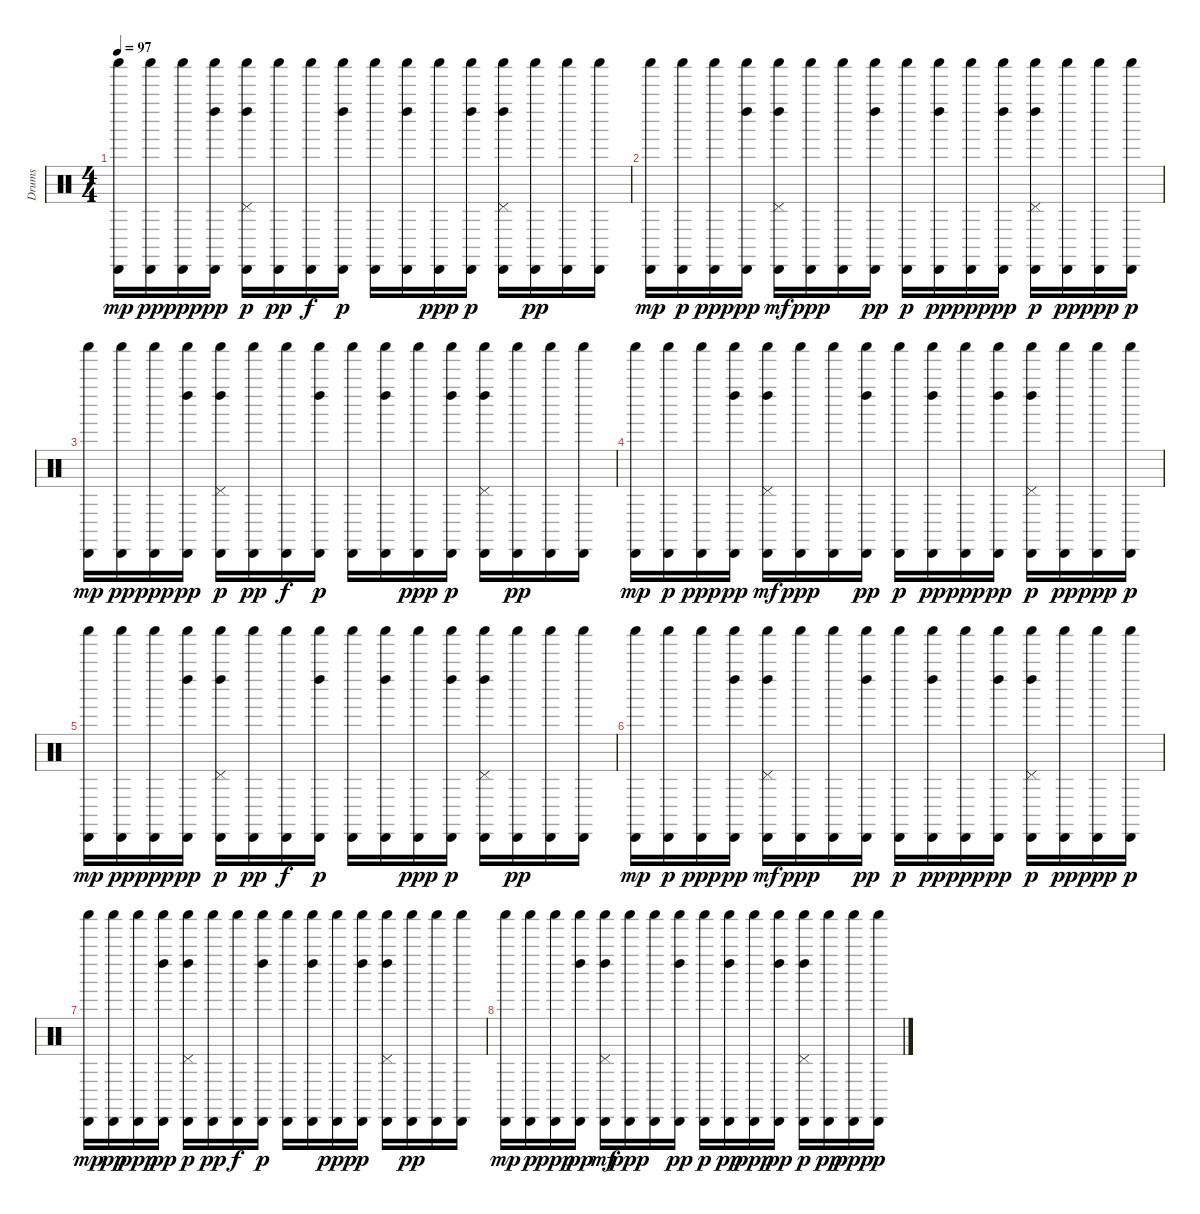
\track ("Drums" "Drums") {instrument percussion}
\staff {score}
\articulation defaults
\ts (4 4)
\tempo 97
\clef neutral
\ks c
("Shaker (hit)" "Cabasa (hit)").16{dy mp} ("Cabasa (hit)" "Shaker (hit)").16{dy pp} ("Shaker (hit)" "Cabasa (hit)").16{dy ppp} ("Shaker (hit)" "Cabasa (hit)" "Left Maraca (hit)").16{dy pp} ("Shaker (hit)" "Cabasa (hit)" "Pedal Hi-Hat (hit)" "Left Maraca (hit)").16{dy p} ("Shaker (hit)" "Cabasa (hit)").16{dy pp} ("Shaker (hit)" "Cabasa (hit)").16{dy f} ("Shaker (hit)" "Cabasa (hit)" "Left Maraca (hit)").16{dy p} ("Cabasa (hit)" "Shaker (hit)").16 ("Shaker (hit)" "Cabasa (hit)" "Left Maraca (hit)").16 ("Shaker (hit)" "Cabasa (hit)").16{dy ppp} ("Shaker (hit)" "Cabasa (hit)" "Left Maraca (hit)").16{dy p} ("Pedal Hi-Hat (hit)" "Shaker (hit)" "Cabasa (hit)" "Left Maraca (hit)").16 ("Shaker (hit)" "Cabasa (hit)").16{dy pp} ("Cabasa (hit)" "Shaker (hit)").16 ("Cabasa (hit)" "Shaker (hit)").16 |
("Shaker (hit)" "Cabasa (hit)").16{dy mp} ("Shaker (hit)" "Cabasa (hit)").16{dy p} ("Shaker (hit)" "Cabasa (hit)").16{dy ppp} ("Shaker (hit)" "Cabasa (hit)" "Left Maraca (hit)").16{dy pp} ("Left Maraca (hit)" "Shaker (hit)" "Cabasa (hit)" "Pedal Hi-Hat (hit)").16{dy mf} ("Cabasa (hit)" "Shaker (hit)").16{dy ppp} ("Shaker (hit)" "Cabasa (hit)").16 ("Left Maraca (hit)" "Cabasa (hit)" "Shaker (hit)").16{dy pp} ("Cabasa (hit)" "Shaker (hit)").16{dy p} ("Left Maraca (hit)" "Cabasa (hit)" "Shaker (hit)").16{dy pp} ("Shaker (hit)" "Cabasa (hit)").16{dy ppp} ("Shaker (hit)" "Cabasa (hit)" "Left Maraca (hit)").16{dy pp} ("Left Maraca (hit)" "Shaker (hit)" "Cabasa (hit)" "Pedal Hi-Hat (hit)").16{dy p} ("Cabasa (hit)" "Shaker (hit)").16{dy pp} ("Shaker (hit)" "Cabasa (hit)").16{dy ppp} ("Shaker (hit)" "Cabasa (hit)").16{dy p} |
("Shaker (hit)" "Cabasa (hit)").16{dy mp} ("Cabasa (hit)" "Shaker (hit)").16{dy pp} ("Shaker (hit)" "Cabasa (hit)").16{dy ppp} ("Shaker (hit)" "Cabasa (hit)" "Left Maraca (hit)").16{dy pp} ("Shaker (hit)" "Cabasa (hit)" "Pedal Hi-Hat (hit)" "Left Maraca (hit)").16{dy p} ("Shaker (hit)" "Cabasa (hit)").16{dy pp} ("Shaker (hit)" "Cabasa (hit)").16{dy f} ("Shaker (hit)" "Cabasa (hit)" "Left Maraca (hit)").16{dy p} ("Cabasa (hit)" "Shaker (hit)").16 ("Shaker (hit)" "Cabasa (hit)" "Left Maraca (hit)").16 ("Shaker (hit)" "Cabasa (hit)").16{dy ppp} ("Shaker (hit)" "Cabasa (hit)" "Left Maraca (hit)").16{dy p} ("Pedal Hi-Hat (hit)" "Shaker (hit)" "Cabasa (hit)" "Left Maraca (hit)").16 ("Shaker (hit)" "Cabasa (hit)").16{dy pp} ("Cabasa (hit)" "Shaker (hit)").16 ("Cabasa (hit)" "Shaker (hit)").16 |
("Shaker (hit)" "Cabasa (hit)").16{dy mp} ("Shaker (hit)" "Cabasa (hit)").16{dy p} ("Shaker (hit)" "Cabasa (hit)").16{dy ppp} ("Shaker (hit)" "Cabasa (hit)" "Left Maraca (hit)").16{dy pp} ("Left Maraca (hit)" "Shaker (hit)" "Cabasa (hit)" "Pedal Hi-Hat (hit)").16{dy mf} ("Cabasa (hit)" "Shaker (hit)").16{dy ppp} ("Shaker (hit)" "Cabasa (hit)").16 ("Left Maraca (hit)" "Cabasa (hit)" "Shaker (hit)").16{dy pp} ("Cabasa (hit)" "Shaker (hit)").16{dy p} ("Left Maraca (hit)" "Cabasa (hit)" "Shaker (hit)").16{dy pp} ("Shaker (hit)" "Cabasa (hit)").16{dy ppp} ("Shaker (hit)" "Cabasa (hit)" "Left Maraca (hit)").16{dy pp} ("Left Maraca (hit)" "Shaker (hit)" "Cabasa (hit)" "Pedal Hi-Hat (hit)").16{dy p} ("Cabasa (hit)" "Shaker (hit)").16{dy pp} ("Shaker (hit)" "Cabasa (hit)").16{dy ppp} ("Shaker (hit)" "Cabasa (hit)").16{dy p} |
("Shaker (hit)" "Cabasa (hit)").16{dy mp} ("Cabasa (hit)" "Shaker (hit)").16{dy pp} ("Shaker (hit)" "Cabasa (hit)").16{dy ppp} ("Shaker (hit)" "Cabasa (hit)" "Left Maraca (hit)").16{dy pp} ("Shaker (hit)" "Cabasa (hit)" "Pedal Hi-Hat (hit)" "Left Maraca (hit)").16{dy p} ("Shaker (hit)" "Cabasa (hit)").16{dy pp} ("Shaker (hit)" "Cabasa (hit)").16{dy f} ("Shaker (hit)" "Cabasa (hit)" "Left Maraca (hit)").16{dy p} ("Cabasa (hit)" "Shaker (hit)").16 ("Shaker (hit)" "Cabasa (hit)" "Left Maraca (hit)").16 ("Shaker (hit)" "Cabasa (hit)").16{dy ppp} ("Shaker (hit)" "Cabasa (hit)" "Left Maraca (hit)").16{dy p} ("Pedal Hi-Hat (hit)" "Shaker (hit)" "Cabasa (hit)" "Left Maraca (hit)").16 ("Shaker (hit)" "Cabasa (hit)").16{dy pp} ("Cabasa (hit)" "Shaker (hit)").16 ("Cabasa (hit)" "Shaker (hit)").16 |
("Shaker (hit)" "Cabasa (hit)").16{dy mp} ("Shaker (hit)" "Cabasa (hit)").16{dy p} ("Shaker (hit)" "Cabasa (hit)").16{dy ppp} ("Shaker (hit)" "Cabasa (hit)" "Left Maraca (hit)").16{dy pp} ("Left Maraca (hit)" "Shaker (hit)" "Cabasa (hit)" "Pedal Hi-Hat (hit)").16{dy mf} ("Cabasa (hit)" "Shaker (hit)").16{dy ppp} ("Shaker (hit)" "Cabasa (hit)").16 ("Left Maraca (hit)" "Cabasa (hit)" "Shaker (hit)").16{dy pp} ("Cabasa (hit)" "Shaker (hit)").16{dy p} ("Left Maraca (hit)" "Cabasa (hit)" "Shaker (hit)").16{dy pp} ("Shaker (hit)" "Cabasa (hit)").16{dy ppp} ("Shaker (hit)" "Cabasa (hit)" "Left Maraca (hit)").16{dy pp} ("Left Maraca (hit)" "Shaker (hit)" "Cabasa (hit)" "Pedal Hi-Hat (hit)").16{dy p} ("Cabasa (hit)" "Shaker (hit)").16{dy pp} ("Shaker (hit)" "Cabasa (hit)").16{dy ppp} ("Shaker (hit)" "Cabasa (hit)").16{dy p} |
("Shaker (hit)" "Cabasa (hit)").16{dy mp} ("Cabasa (hit)" "Shaker (hit)").16{dy pp} ("Shaker (hit)" "Cabasa (hit)").16{dy ppp} ("Shaker (hit)" "Cabasa (hit)" "Left Maraca (hit)").16{dy pp} ("Shaker (hit)" "Cabasa (hit)" "Pedal Hi-Hat (hit)" "Left Maraca (hit)").16{dy p} ("Shaker (hit)" "Cabasa (hit)").16{dy pp} ("Shaker (hit)" "Cabasa (hit)").16{dy f} ("Shaker (hit)" "Cabasa (hit)" "Left Maraca (hit)").16{dy p} ("Cabasa (hit)" "Shaker (hit)").16 ("Shaker (hit)" "Cabasa (hit)" "Left Maraca (hit)").16 ("Shaker (hit)" "Cabasa (hit)").16{dy ppp} ("Shaker (hit)" "Cabasa (hit)" "Left Maraca (hit)").16{dy p} ("Pedal Hi-Hat (hit)" "Shaker (hit)" "Cabasa (hit)" "Left Maraca (hit)").16 ("Shaker (hit)" "Cabasa (hit)").16{dy pp} ("Cabasa (hit)" "Shaker (hit)").16 ("Cabasa (hit)" "Shaker (hit)").16 |
("Shaker (hit)" "Cabasa (hit)").16{dy mp} ("Shaker (hit)" "Cabasa (hit)").16{dy p} ("Shaker (hit)" "Cabasa (hit)").16{dy ppp} ("Shaker (hit)" "Cabasa (hit)" "Left Maraca (hit)").16{dy pp} ("Left Maraca (hit)" "Shaker (hit)" "Cabasa (hit)" "Pedal Hi-Hat (hit)").16{dy mf} ("Cabasa (hit)" "Shaker (hit)").16{dy ppp} ("Shaker (hit)" "Cabasa (hit)").16 ("Left Maraca (hit)" "Cabasa (hit)" "Shaker (hit)").16{dy pp} ("Cabasa (hit)" "Shaker (hit)").16{dy p} ("Left Maraca (hit)" "Cabasa (hit)" "Shaker (hit)").16{dy pp} ("Shaker (hit)" "Cabasa (hit)").16{dy ppp} ("Shaker (hit)" "Cabasa (hit)" "Left Maraca (hit)").16{dy pp} ("Left Maraca (hit)" "Shaker (hit)" "Cabasa (hit)" "Pedal Hi-Hat (hit)").16{dy p} ("Cabasa (hit)" "Shaker (hit)").16{dy pp} ("Shaker (hit)" "Cabasa (hit)").16{dy ppp} ("Shaker (hit)" "Cabasa (hit)").16{dy p}
